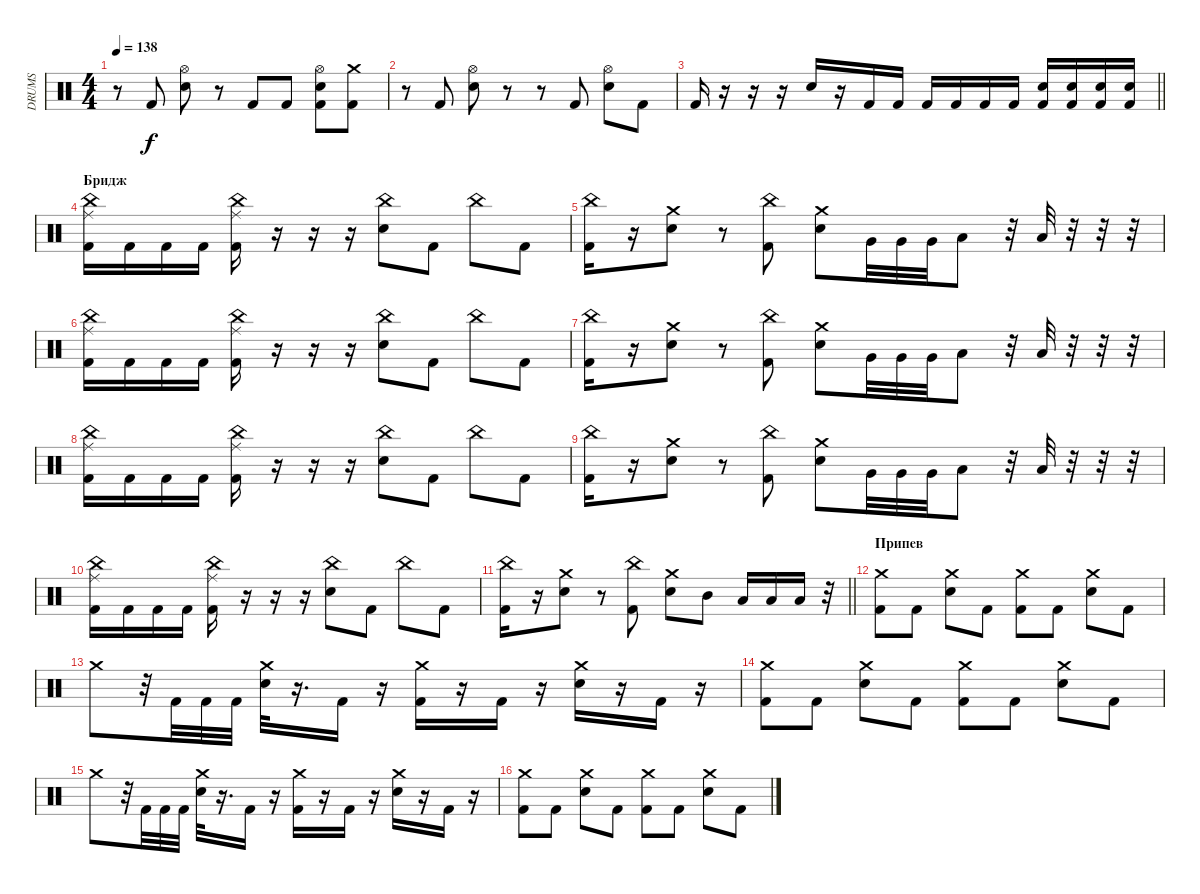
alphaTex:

\track ("DRUMS" "DRUMS") {instrument percussion}
\staff {score}
\articulation defaults
\ts (4 4)
\tempo 138
\clef neutral
\ks c
r.8{dy f} "Kick (hit) 2".8 ("Hi-Hat (open)" "Electric Snare (hit)").8 r.8 "Kick (hit) 2".8 "Kick (hit) 2".8 ("Hi-Hat (open)" "Electric Snare (hit)" "Kick (hit) 2").8 ("Crash medium (hit)" "Kick (hit) 2").8 |
r.8 "Kick (hit) 2".8 ("Hi-Hat (open)" "Electric Snare (hit)").8 r.8 r.8 "Kick (hit) 2".8 ("Hi-Hat (open)" "Electric Snare (hit)").8 "Kick (hit) 2".8 |
\barLineRight lightlight "Kick (hit) 2".16
r.16 r.16 r.16 "Electric Snare (hit)".16 r.16 "Kick (hit) 2".16 "Kick (hit) 2".16 "Kick (hit) 2".16 "Kick (hit) 2".16 "Kick (hit) 2".16 "Kick (hit) 2".16 ("Electric Snare (hit)" "Kick (hit) 2").16 ("Electric Snare (hit)" "Kick (hit) 2").16 ("Electric Snare (hit)" "Kick (hit) 2").16 ("Electric Snare (hit)" "Kick (hit) 2").16 |
\section ("" "Бридж")
("Ride (middle)" "China (hit)" "Kick (hit) 2").16 "Kick (hit) 2".16 "Kick (hit) 2".16 "Kick (hit) 2".16 ("Ride (middle)" "China (hit)" "Kick (hit) 2").16 r.16 r.16 r.16 ("China (hit)" "Electric Snare (hit)").8 "Kick (hit) 2".8 "China (hit)".8 "Kick (hit) 2".8 |
("China (hit)" "Kick (hit) 2").16 r.16 ("Crash medium (hit)" "Electric Snare (hit)").8 r.8 ("China (hit)" "Kick (hit) 2").8 ("Crash medium (hit)" "Electric Snare (hit)").8 "Very Low Tom (hit)".32 "Very Low Tom (hit)".32 "Very Low Tom (hit)".32 "Low Floor Tom (hit)".8 r.32 "Low Floor Tom (hit)".32 r.32 r.32 r.32 |
("Ride (middle)" "China (hit)" "Kick (hit) 2").16 "Kick (hit) 2".16 "Kick (hit) 2".16 "Kick (hit) 2".16 ("Ride (middle)" "China (hit)" "Kick (hit) 2").16 r.16 r.16 r.16 ("China (hit)" "Electric Snare (hit)").8 "Kick (hit) 2".8 "China (hit)".8 "Kick (hit) 2".8 |
("China (hit)" "Kick (hit) 2").16 r.16 ("Crash medium (hit)" "Electric Snare (hit)").8 r.8 ("China (hit)" "Kick (hit) 2").8 ("Crash medium (hit)" "Electric Snare (hit)").8 "Very Low Tom (hit)".32 "Very Low Tom (hit)".32 "Very Low Tom (hit)".32 "Low Floor Tom (hit)".8 r.32 "Low Floor Tom (hit)".32 r.32 r.32 r.32 |
("Ride (middle)" "China (hit)" "Kick (hit) 2").16 "Kick (hit) 2".16 "Kick (hit) 2".16 "Kick (hit) 2".16 ("Ride (middle)" "China (hit)" "Kick (hit) 2").16 r.16 r.16 r.16 ("China (hit)" "Electric Snare (hit)").8 "Kick (hit) 2".8 "China (hit)".8 "Kick (hit) 2".8 |
("China (hit)" "Kick (hit) 2").16 r.16 ("Crash medium (hit)" "Electric Snare (hit)").8 r.8 ("China (hit)" "Kick (hit) 2").8 ("Crash medium (hit)" "Electric Snare (hit)").8 "Very Low Tom (hit)".32 "Very Low Tom (hit)".32 "Very Low Tom (hit)".32 "Low Floor Tom (hit)".8 r.32 "Low Floor Tom (hit)".32 r.32 r.32 r.32 |
("Ride (middle)" "China (hit)" "Kick (hit) 2").16 "Kick (hit) 2".16 "Kick (hit) 2".16 "Kick (hit) 2".16 ("Ride (middle)" "China (hit)" "Kick (hit) 2").16 r.16 r.16 r.16 ("China (hit)" "Electric Snare (hit)").8 "Kick (hit) 2".8 "China (hit)".8 "Kick (hit) 2".8 |
\barLineRight lightlight
("China (hit)" "Kick (hit) 2").16 r.16 ("Crash medium (hit)" "Electric Snare (hit)").8 r.8 ("China (hit)" "Kick (hit) 2").8 ("Crash medium (hit)" "Electric Snare (hit)").8 "Mid Tom (hit)".8 "Low Tom (hit)".16 "Low Tom (hit)".16 "Low Tom (hit)".16 r.32 |
\section ("" "Припев")
("Crash medium (hit)" "Kick (hit) 2").8 "Kick (hit) 2".8 ("Crash medium (hit)" "Electric Snare (hit)").8 "Kick (hit) 2".8 ("Crash medium (hit)" "Kick (hit) 2").8 "Kick (hit) 2".8 ("Crash medium (hit)" "Electric Snare (hit)").8 "Kick (hit) 2".8 |
"Crash medium (hit)".8 r.32 "Kick (hit) 2".32 "Kick (hit) 2".32 "Kick (hit) 2".32 ("Crash medium (hit)" "Electric Snare (hit)").32 r.16{d} "Kick (hit) 2".16 r.16 ("Crash medium (hit)" "Kick (hit) 2").16 r.16 "Kick (hit) 2".16 r.16 ("Crash medium (hit)" "Electric Snare (hit)").16 r.16 "Kick (hit) 2".16 r.16 |
("Crash medium (hit)" "Kick (hit) 2").8 "Kick (hit) 2".8 ("Crash medium (hit)" "Electric Snare (hit)").8 "Kick (hit) 2".8 ("Crash medium (hit)" "Kick (hit) 2").8 "Kick (hit) 2".8 ("Crash medium (hit)" "Electric Snare (hit)").8 "Kick (hit) 2".8 |
"Crash medium (hit)".8 r.32 "Kick (hit) 2".32 "Kick (hit) 2".32 "Kick (hit) 2".32 ("Crash medium (hit)" "Electric Snare (hit)").32 r.16{d} "Kick (hit) 2".16 r.16 ("Crash medium (hit)" "Kick (hit) 2").16 r.16 "Kick (hit) 2".16 r.16 ("Crash medium (hit)" "Electric Snare (hit)").16 r.16 "Kick (hit) 2".16 r.16 |
("Crash medium (hit)" "Kick (hit) 2").8 "Kick (hit) 2".8 ("Crash medium (hit)" "Electric Snare (hit)").8 "Kick (hit) 2".8 ("Crash medium (hit)" "Kick (hit) 2").8 "Kick (hit) 2".8 ("Crash medium (hit)" "Electric Snare (hit)").8 "Kick (hit) 2".8
